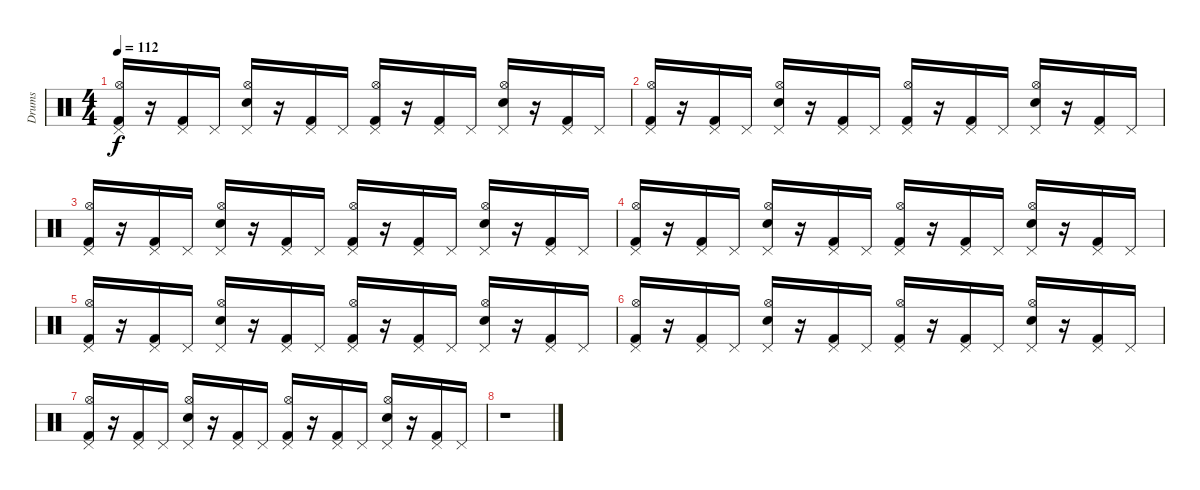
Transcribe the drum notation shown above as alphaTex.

\track ("Drums" "Drums") {instrument percussion}
\staff {score}
\articulation defaults
\ts (4 4)
\tempo 112
\clef neutral
\ks c
("Pedal Hi-Hat (hit)" "Hi-Hat (open)" "Kick (hit) 2").16{dy f} r.16 ("Pedal Hi-Hat (hit)" "Kick (hit) 2").16 "Pedal Hi-Hat (hit)".16 ("Pedal Hi-Hat (hit)" "Hi-Hat (open)" "Electric Snare (hit)").16 r.16 ("Pedal Hi-Hat (hit)" "Kick (hit) 2").16 "Pedal Hi-Hat (hit)".16 ("Pedal Hi-Hat (hit)" "Hi-Hat (open)" "Kick (hit) 2").16 r.16 ("Pedal Hi-Hat (hit)" "Kick (hit) 2").16 "Pedal Hi-Hat (hit)".16 ("Pedal Hi-Hat (hit)" "Hi-Hat (open)" "Electric Snare (hit)").16 r.16 ("Pedal Hi-Hat (hit)" "Kick (hit) 2").16 "Pedal Hi-Hat (hit)".16 |
("Pedal Hi-Hat (hit)" "Hi-Hat (open)" "Kick (hit) 2").16 r.16 ("Pedal Hi-Hat (hit)" "Kick (hit) 2").16 "Pedal Hi-Hat (hit)".16 ("Pedal Hi-Hat (hit)" "Hi-Hat (open)" "Electric Snare (hit)").16 r.16 ("Pedal Hi-Hat (hit)" "Kick (hit) 2").16 "Pedal Hi-Hat (hit)".16 ("Pedal Hi-Hat (hit)" "Hi-Hat (open)" "Kick (hit) 2").16 r.16 ("Pedal Hi-Hat (hit)" "Kick (hit) 2").16 "Pedal Hi-Hat (hit)".16 ("Pedal Hi-Hat (hit)" "Hi-Hat (open)" "Electric Snare (hit)").16 r.16 ("Pedal Hi-Hat (hit)" "Kick (hit) 2").16 "Pedal Hi-Hat (hit)".16 |
("Pedal Hi-Hat (hit)" "Hi-Hat (open)" "Kick (hit) 2").16 r.16 ("Pedal Hi-Hat (hit)" "Kick (hit) 2").16 "Pedal Hi-Hat (hit)".16 ("Pedal Hi-Hat (hit)" "Hi-Hat (open)" "Electric Snare (hit)").16 r.16 ("Pedal Hi-Hat (hit)" "Kick (hit) 2").16 "Pedal Hi-Hat (hit)".16 ("Pedal Hi-Hat (hit)" "Hi-Hat (open)" "Kick (hit) 2").16 r.16 ("Pedal Hi-Hat (hit)" "Kick (hit) 2").16 "Pedal Hi-Hat (hit)".16 ("Pedal Hi-Hat (hit)" "Hi-Hat (open)" "Electric Snare (hit)").16 r.16 ("Pedal Hi-Hat (hit)" "Kick (hit) 2").16 "Pedal Hi-Hat (hit)".16 |
("Pedal Hi-Hat (hit)" "Hi-Hat (open)" "Kick (hit) 2").16{volume 0} r.16 ("Pedal Hi-Hat (hit)" "Kick (hit) 2").16 "Pedal Hi-Hat (hit)".16 ("Pedal Hi-Hat (hit)" "Hi-Hat (open)" "Electric Snare (hit)").16 r.16 ("Pedal Hi-Hat (hit)" "Kick (hit) 2").16 "Pedal Hi-Hat (hit)".16 ("Pedal Hi-Hat (hit)" "Hi-Hat (open)" "Kick (hit) 2").16 r.16 ("Pedal Hi-Hat (hit)" "Kick (hit) 2").16 "Pedal Hi-Hat (hit)".16 ("Pedal Hi-Hat (hit)" "Hi-Hat (open)" "Electric Snare (hit)").16 r.16 ("Pedal Hi-Hat (hit)" "Kick (hit) 2").16 "Pedal Hi-Hat (hit)".16 |
("Pedal Hi-Hat (hit)" "Hi-Hat (open)" "Kick (hit) 2").16 r.16 ("Pedal Hi-Hat (hit)" "Kick (hit) 2").16 "Pedal Hi-Hat (hit)".16 ("Pedal Hi-Hat (hit)" "Hi-Hat (open)" "Electric Snare (hit)").16 r.16 ("Pedal Hi-Hat (hit)" "Kick (hit) 2").16 "Pedal Hi-Hat (hit)".16 ("Pedal Hi-Hat (hit)" "Hi-Hat (open)" "Kick (hit) 2").16 r.16 ("Pedal Hi-Hat (hit)" "Kick (hit) 2").16 "Pedal Hi-Hat (hit)".16 ("Pedal Hi-Hat (hit)" "Hi-Hat (open)" "Electric Snare (hit)").16 r.16 ("Pedal Hi-Hat (hit)" "Kick (hit) 2").16 "Pedal Hi-Hat (hit)".16 |
("Pedal Hi-Hat (hit)" "Hi-Hat (open)" "Kick (hit) 2").16 r.16 ("Pedal Hi-Hat (hit)" "Kick (hit) 2").16 "Pedal Hi-Hat (hit)".16 ("Pedal Hi-Hat (hit)" "Hi-Hat (open)" "Electric Snare (hit)").16 r.16 ("Pedal Hi-Hat (hit)" "Kick (hit) 2").16 "Pedal Hi-Hat (hit)".16 ("Pedal Hi-Hat (hit)" "Hi-Hat (open)" "Kick (hit) 2").16 r.16 ("Pedal Hi-Hat (hit)" "Kick (hit) 2").16 "Pedal Hi-Hat (hit)".16 ("Pedal Hi-Hat (hit)" "Hi-Hat (open)" "Electric Snare (hit)").16 r.16 ("Pedal Hi-Hat (hit)" "Kick (hit) 2").16 "Pedal Hi-Hat (hit)".16 |
("Pedal Hi-Hat (hit)" "Hi-Hat (open)" "Kick (hit) 2").16 r.16 ("Pedal Hi-Hat (hit)" "Kick (hit) 2").16 "Pedal Hi-Hat (hit)".16 ("Pedal Hi-Hat (hit)" "Hi-Hat (open)" "Electric Snare (hit)").16 r.16 ("Pedal Hi-Hat (hit)" "Kick (hit) 2").16 "Pedal Hi-Hat (hit)".16 ("Pedal Hi-Hat (hit)" "Hi-Hat (open)" "Kick (hit) 2").16 r.16 ("Pedal Hi-Hat (hit)" "Kick (hit) 2").16 "Pedal Hi-Hat (hit)".16 ("Pedal Hi-Hat (hit)" "Hi-Hat (open)" "Electric Snare (hit)").16 r.16 ("Pedal Hi-Hat (hit)" "Kick (hit) 2").16 "Pedal Hi-Hat (hit)".16 |
r.1
